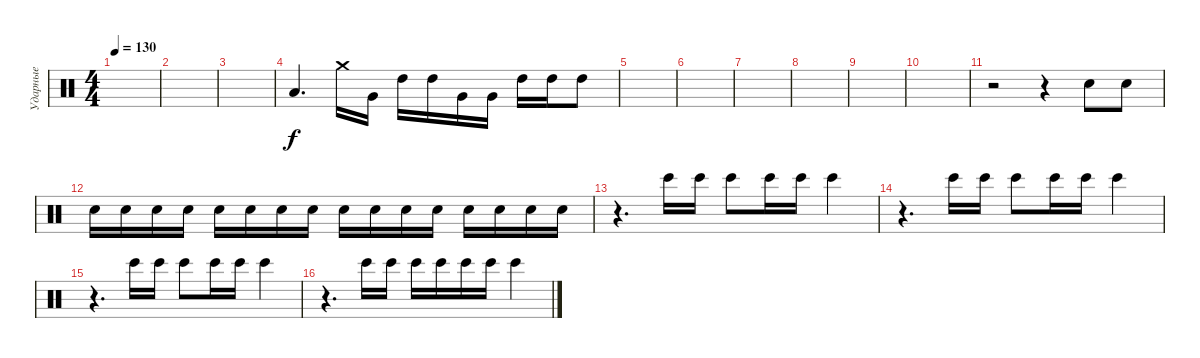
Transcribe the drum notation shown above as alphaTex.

\track ("Ударные" "Ударные") {instrument percussion}
\staff {score}
\articulation defaults
\ts (4 4)
\tempo 130
\clef neutral
\ks c
|
|
|
"Low Floor Tom (hit)".4{d} "Crash medium (hit)".16 "Very Low Tom (hit)".16 "High Tom (hit)".16 "High Tom (hit)".16 "Very Low Tom (hit)".16 "Very Low Tom (hit)".16 "High Tom (hit)".16 "High Tom (hit)".16 "High Tom (hit)".8 |
|
|
|
|
|
|
r.2 r.4 "Electric Snare (hit)".8 "Electric Snare (hit)".8 |
"Electric Snare (hit)".16 "Electric Snare (hit)".16 "Electric Snare (hit)".16 "Electric Snare (hit)".16 "Electric Snare (hit)".16 "Electric Snare (hit)".16 "Electric Snare (hit)".16 "Electric Snare (hit)".16 "Electric Snare (hit)".16 "Electric Snare (hit)".16 "Electric Snare (hit)".16 "Electric Snare (hit)".16 "Electric Snare (hit)".16 "Electric Snare (hit)".16 "Electric Snare (hit)".16 "Electric Snare (hit)".16 |
r.4{d} "Bongo High (hit)".16 "Bongo High (hit)".16 "Bongo High (hit)".8 "Bongo High (hit)".16 "Bongo High (hit)".16 "Bongo High (hit)".4 |
r.4{d} "Bongo High (hit)".16 "Bongo High (hit)".16 "Bongo High (hit)".8 "Bongo High (hit)".16 "Bongo High (hit)".16 "Bongo High (hit)".4 |
r.4{d} "Bongo High (hit)".16 "Bongo High (hit)".16 "Bongo High (hit)".8 "Bongo High (hit)".16 "Bongo High (hit)".16 "Bongo High (hit)".4 |
r.4{d} "Bongo High (hit)".16 "Bongo High (hit)".16 "Bongo High (hit)".16 "Bongo High (hit)".16 "Bongo High (hit)".16 "Bongo High (hit)".16 "Bongo High (hit)".4
